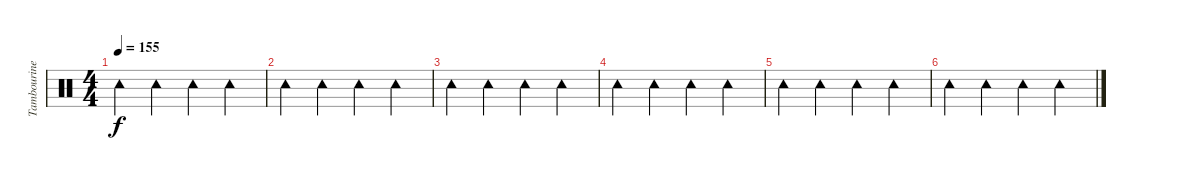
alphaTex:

\track ("Tambourine" "Tambourine") {instrument percussion}
\staff {score}
\articulation defaults
\ts (4 4)
\tempo 155
\clef neutral
\ks c "Tambourine (hit)".4{dy f} "Tambourine (hit)".4 "Tambourine (hit)".4 "Tambourine (hit)".4
|
"Tambourine (hit)".4 "Tambourine (hit)".4 "Tambourine (hit)".4 "Tambourine (hit)".4 |
"Tambourine (hit)".4 "Tambourine (hit)".4 "Tambourine (hit)".4 "Tambourine (hit)".4 |
"Tambourine (hit)".4 "Tambourine (hit)".4 "Tambourine (hit)".4 "Tambourine (hit)".4 |
"Tambourine (hit)".4 "Tambourine (hit)".4 "Tambourine (hit)".4 "Tambourine (hit)".4 |
"Tambourine (hit)".4 "Tambourine (hit)".4 "Tambourine (hit)".4 "Tambourine (hit)".4
